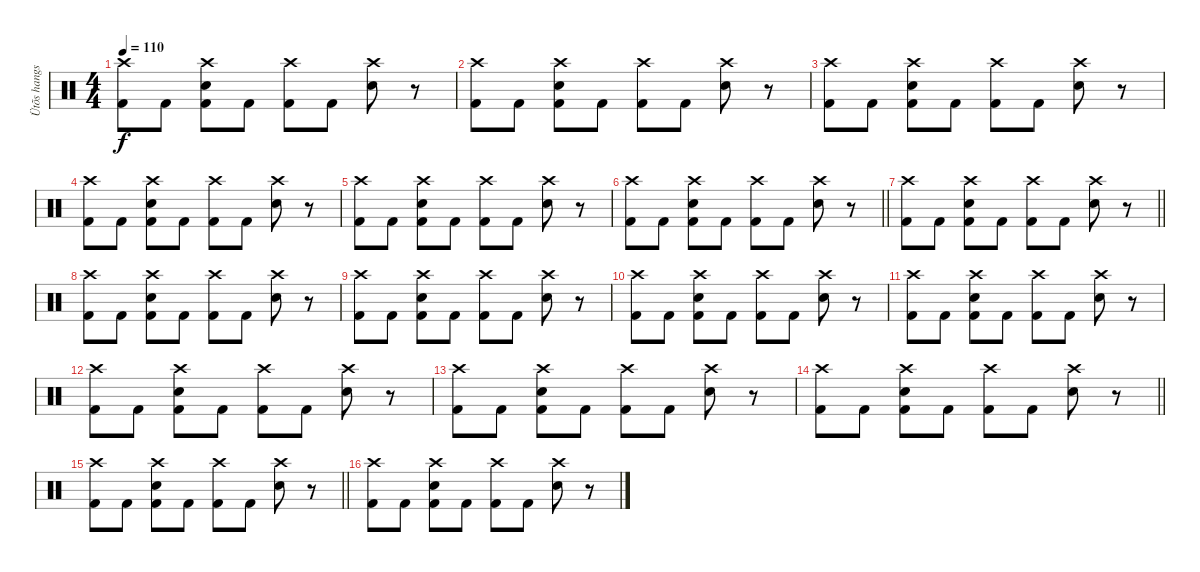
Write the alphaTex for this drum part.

\track ("Ütõs hangszer" "Ütõs hangs") {instrument percussion}
\staff {score}
\articulation defaults
\ts (4 4)
\tempo 110
\clef neutral
\ks c
("Crash high (hit)" "Kick (hit) 2").8{dy f} "Kick (hit) 2".8 ("Crash high (hit)" "Electric Snare (hit)" "Kick (hit) 2").8 "Kick (hit) 2".8 ("Crash high (hit)" "Kick (hit) 2").8 "Kick (hit) 2".8 ("Crash high (hit)" "Electric Snare (hit)").8 r.8 |
("Crash high (hit)" "Kick (hit) 2").8 "Kick (hit) 2".8 ("Crash high (hit)" "Electric Snare (hit)" "Kick (hit) 2").8 "Kick (hit) 2".8 ("Crash high (hit)" "Kick (hit) 2").8 "Kick (hit) 2".8 ("Crash high (hit)" "Electric Snare (hit)").8 r.8 |
("Crash high (hit)" "Kick (hit) 2").8 "Kick (hit) 2".8 ("Crash high (hit)" "Electric Snare (hit)" "Kick (hit) 2").8 "Kick (hit) 2".8 ("Crash high (hit)" "Kick (hit) 2").8 "Kick (hit) 2".8 ("Crash high (hit)" "Electric Snare (hit)").8 r.8 |
("Crash high (hit)" "Kick (hit) 2").8 "Kick (hit) 2".8 ("Crash high (hit)" "Electric Snare (hit)" "Kick (hit) 2").8 "Kick (hit) 2".8 ("Crash high (hit)" "Kick (hit) 2").8 "Kick (hit) 2".8 ("Crash high (hit)" "Electric Snare (hit)").8 r.8 |
("Crash high (hit)" "Kick (hit) 2").8 "Kick (hit) 2".8 ("Crash high (hit)" "Electric Snare (hit)" "Kick (hit) 2").8 "Kick (hit) 2".8 ("Crash high (hit)" "Kick (hit) 2").8 "Kick (hit) 2".8 ("Crash high (hit)" "Electric Snare (hit)").8 r.8 |
\barLineRight lightlight
("Crash high (hit)" "Kick (hit) 2").8 "Kick (hit) 2".8 ("Crash high (hit)" "Electric Snare (hit)" "Kick (hit) 2").8 "Kick (hit) 2".8 ("Crash high (hit)" "Kick (hit) 2").8 "Kick (hit) 2".8 ("Crash high (hit)" "Electric Snare (hit)").8 r.8 |
\barLineRight lightlight
("Crash high (hit)" "Kick (hit) 2").8 "Kick (hit) 2".8 ("Crash high (hit)" "Electric Snare (hit)" "Kick (hit) 2").8 "Kick (hit) 2".8 ("Crash high (hit)" "Kick (hit) 2").8 "Kick (hit) 2".8 ("Crash high (hit)" "Electric Snare (hit)").8 r.8 |
("Crash high (hit)" "Kick (hit) 2").8 "Kick (hit) 2".8 ("Crash high (hit)" "Electric Snare (hit)" "Kick (hit) 2").8 "Kick (hit) 2".8 ("Crash high (hit)" "Kick (hit) 2").8 "Kick (hit) 2".8 ("Crash high (hit)" "Electric Snare (hit)").8 r.8 |
("Crash high (hit)" "Kick (hit) 2").8 "Kick (hit) 2".8 ("Crash high (hit)" "Electric Snare (hit)" "Kick (hit) 2").8 "Kick (hit) 2".8 ("Crash high (hit)" "Kick (hit) 2").8 "Kick (hit) 2".8 ("Crash high (hit)" "Electric Snare (hit)").8 r.8 |
("Crash high (hit)" "Kick (hit) 2").8 "Kick (hit) 2".8 ("Crash high (hit)" "Electric Snare (hit)" "Kick (hit) 2").8 "Kick (hit) 2".8 ("Crash high (hit)" "Kick (hit) 2").8 "Kick (hit) 2".8 ("Crash high (hit)" "Electric Snare (hit)").8 r.8 |
("Crash high (hit)" "Kick (hit) 2").8 "Kick (hit) 2".8 ("Crash high (hit)" "Electric Snare (hit)" "Kick (hit) 2").8 "Kick (hit) 2".8 ("Crash high (hit)" "Kick (hit) 2").8 "Kick (hit) 2".8 ("Crash high (hit)" "Electric Snare (hit)").8 r.8 |
("Crash high (hit)" "Kick (hit) 2").8 "Kick (hit) 2".8 ("Crash high (hit)" "Electric Snare (hit)" "Kick (hit) 2").8 "Kick (hit) 2".8 ("Crash high (hit)" "Kick (hit) 2").8 "Kick (hit) 2".8 ("Crash high (hit)" "Electric Snare (hit)").8 r.8 |
("Crash high (hit)" "Kick (hit) 2").8 "Kick (hit) 2".8 ("Crash high (hit)" "Electric Snare (hit)" "Kick (hit) 2").8 "Kick (hit) 2".8 ("Crash high (hit)" "Kick (hit) 2").8 "Kick (hit) 2".8 ("Crash high (hit)" "Electric Snare (hit)").8 r.8 |
\barLineRight lightlight
("Crash high (hit)" "Kick (hit) 2").8 "Kick (hit) 2".8 ("Crash high (hit)" "Electric Snare (hit)" "Kick (hit) 2").8 "Kick (hit) 2".8 ("Crash high (hit)" "Kick (hit) 2").8 "Kick (hit) 2".8 ("Crash high (hit)" "Electric Snare (hit)").8 r.8 |
\barLineRight lightlight
("Crash high (hit)" "Kick (hit) 2").8 "Kick (hit) 2".8 ("Crash high (hit)" "Electric Snare (hit)" "Kick (hit) 2").8 "Kick (hit) 2".8 ("Crash high (hit)" "Kick (hit) 2").8 "Kick (hit) 2".8 ("Crash high (hit)" "Electric Snare (hit)").8 r.8 |
("Crash high (hit)" "Kick (hit) 2").8 "Kick (hit) 2".8 ("Crash high (hit)" "Electric Snare (hit)" "Kick (hit) 2").8 "Kick (hit) 2".8 ("Crash high (hit)" "Kick (hit) 2").8 "Kick (hit) 2".8 ("Crash high (hit)" "Electric Snare (hit)").8 r.8
